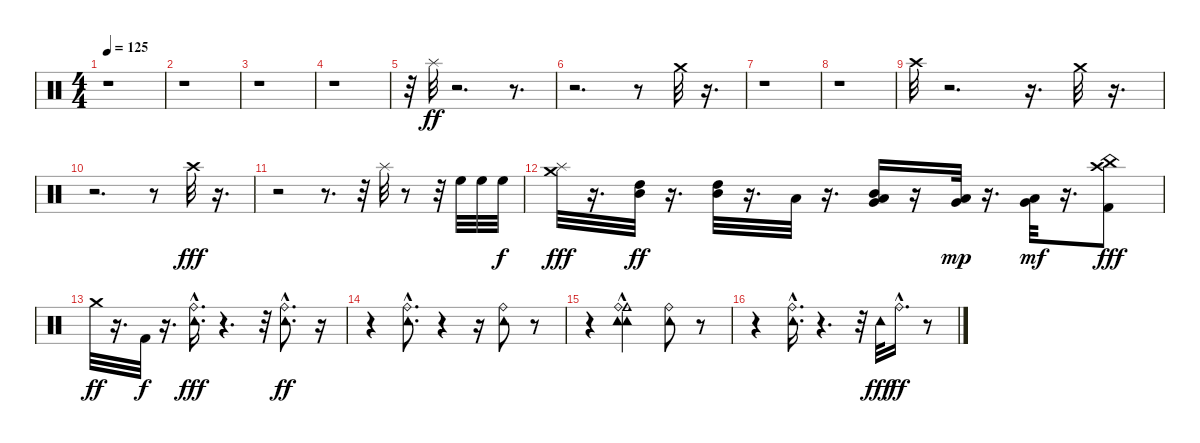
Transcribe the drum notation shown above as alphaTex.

\track "" {instrument percussion}
\staff {score}
\articulation defaults
\ts (4 4)
\tempo 125
\clef neutral
\ks c
r.1{dy ff} |
r.1 |
r.1 |
r.1 |
r.32 "Splash (hit)".32 r.2{d} r.8{d} |
r.2{d} r.8 "Crash medium (hit)".32 r.16{d} |
r.1 |
r.1 |
"Crash high (hit)".32 r.2{d} r.16{d} "Crash medium (hit)".32 r.16{d} |
r.2{d} r.8 "Crash high (hit)".32{dy fff} r.16{d} |
r.2 r.8{d} r.32 "Splash (hit)".32 r.8 r.32 "High Floor Tom (hit)".32 "High Floor Tom (hit)".32 "High Floor Tom (hit)".32{dy f} |
("Crash medium (hit)" "Splash (hit)").32{dy fff} r.16{d} ("High Tom (hit)" "Mid Tom (hit)").32{dy ff} r.16{d} ("Mid Tom (hit)" "High Tom (hit)").32 r.16{d} "Low Tom (hit)".32 r.16{d} ("Very Low Tom (hit)" "Mid Tom (hit)" "Low Tom (hit)").16 r.16 ("Very Low Tom (hit)" "Low Tom (hit)").32{dy mp} r.16{d} ("Low Floor Tom (hit)" "Very Low Tom (hit)").32{dy mf} r.16{d} ("Kick (hit) 2" "China (hit)" "Crash high (hit)").8{dy fff} |
"Crash medium (hit)".32{dy ff} r.16{d} "Kick (hit) 2".32{dy f} r.16{d} ("Ride (bell)"{hac} "Tambourine (hit)").16{d dy fff} r.4{d} r.32 ("Tambourine (hit)" "Ride (bell)"{hac}).8{d dy ff} r.16 |
r.4 ("Tambourine (hit)" "Ride (bell)"{hac}).8{d} r.4 r.16 ("Tambourine (hit)" "Ride (bell)").8 r.8 |
r.4 ("Tambourine (hit)" "Cowbell medium (hit)" "Ride (bell)"{hac} "Tambourine (hit)"{hac}).2 ("Tambourine (hit)" "Ride (bell)").8 r.8 |
r.4 ("Tambourine (hit)" "Ride (bell)"{hac}).16{d} r.4{d} r.32 "Tambourine (hit)".32{dy fff} "Ride (bell)"{hac}.16{d dy ff} r.8
